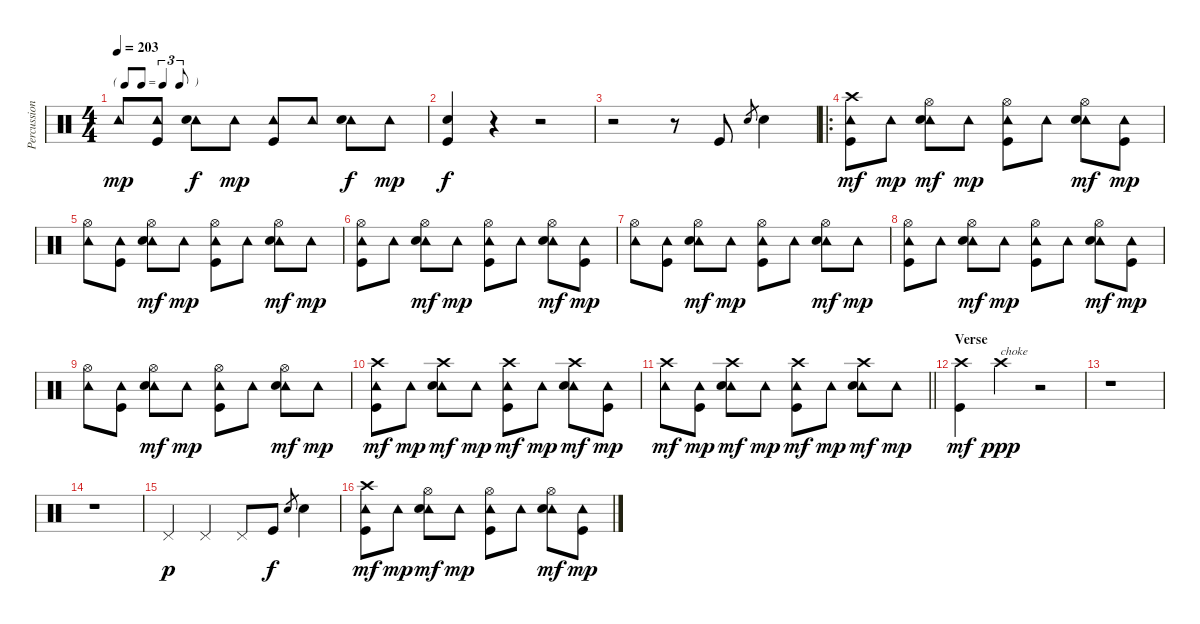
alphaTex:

\track ("Percussion" "Percussion") {instrument percussion}
\staff {score}
\articulation defaults
\ts (4 4)
\tf triplet8th
\tempo 203
\clef neutral
\ks c "Tambourine (hit)".8{dy mp}
("Tambourine (hit)" "Kick (hit)").8 ("Tambourine (hit)" "Snare (hit) 2").8{dy f} "Tambourine (hit)".8{dy mp} ("Tambourine (hit)" "Kick (hit)").8 "Tambourine (hit)".8 ("Tambourine (hit)" "Snare (hit) 2").8{dy f} "Tambourine (hit)".8{dy mp} |
("Snare (hit) 2" "Kick (hit)").4{dy f} r.4 r.2 |
r.2 r.8 "Kick (hit)".8 "Snare (hit) 2".8{gr} "Snare (hit) 2".4 |
\ro
("Tambourine (hit)" "Crash high (hit)" "Kick (hit)").8{dy mf} "Tambourine (hit)".8{dy mp} ("Tambourine (hit)" "Hi-Hat (open)" "Snare (hit) 2").8{dy mf} "Tambourine (hit)".8{dy mp} ("Tambourine (hit)" "Hi-Hat (open)" "Kick (hit)").8 "Tambourine (hit)".8 ("Tambourine (hit)" "Hi-Hat (open)" "Snare (hit) 2").8{dy mf} ("Tambourine (hit)" "Kick (hit)").8{dy mp} |
("Tambourine (hit)" "Hi-Hat (open)").8 ("Tambourine (hit)" "Kick (hit)").8 ("Tambourine (hit)" "Hi-Hat (open)" "Snare (hit) 2").8{dy mf} "Tambourine (hit)".8{dy mp} ("Tambourine (hit)" "Hi-Hat (open)" "Kick (hit)").8 "Tambourine (hit)".8 ("Tambourine (hit)" "Hi-Hat (open)" "Snare (hit) 2").8{dy mf} "Tambourine (hit)".8{dy mp} |
("Tambourine (hit)" "Hi-Hat (open)" "Kick (hit)").8 "Tambourine (hit)".8 ("Tambourine (hit)" "Hi-Hat (open)" "Snare (hit) 2").8{dy mf} "Tambourine (hit)".8{dy mp} ("Tambourine (hit)" "Hi-Hat (open)" "Kick (hit)").8 "Tambourine (hit)".8 ("Tambourine (hit)" "Hi-Hat (open)" "Snare (hit) 2").8{dy mf} ("Tambourine (hit)" "Kick (hit)").8{dy mp} |
("Tambourine (hit)" "Hi-Hat (open)").8 ("Tambourine (hit)" "Kick (hit)").8 ("Tambourine (hit)" "Hi-Hat (open)" "Snare (hit) 2").8{dy mf} "Tambourine (hit)".8{dy mp} ("Tambourine (hit)" "Hi-Hat (open)" "Kick (hit)").8 "Tambourine (hit)".8 ("Tambourine (hit)" "Hi-Hat (open)" "Snare (hit) 2").8{dy mf} "Tambourine (hit)".8{dy mp} |
("Tambourine (hit)" "Hi-Hat (open)" "Kick (hit)").8 "Tambourine (hit)".8 ("Tambourine (hit)" "Hi-Hat (open)" "Snare (hit) 2").8{dy mf} "Tambourine (hit)".8{dy mp} ("Tambourine (hit)" "Hi-Hat (open)" "Kick (hit)").8 "Tambourine (hit)".8 ("Tambourine (hit)" "Hi-Hat (open)" "Snare (hit) 2").8{dy mf} ("Tambourine (hit)" "Kick (hit)").8{dy mp} |
("Tambourine (hit)" "Hi-Hat (open)").8 ("Tambourine (hit)" "Kick (hit)").8 ("Tambourine (hit)" "Hi-Hat (open)" "Snare (hit) 2").8{dy mf} "Tambourine (hit)".8{dy mp} ("Tambourine (hit)" "Hi-Hat (open)" "Kick (hit)").8 "Tambourine (hit)".8 ("Tambourine (hit)" "Hi-Hat (open)" "Snare (hit) 2").8{dy mf} "Tambourine (hit)".8{dy mp} |
("Tambourine (hit)" "Crash high (hit)" "Kick (hit)").8{dy mf} "Tambourine (hit)".8{dy mp} ("Tambourine (hit)" "Crash high (hit)" "Snare (hit) 2").8{dy mf} "Tambourine (hit)".8{dy mp} ("Tambourine (hit)" "Crash high (hit)" "Kick (hit)").8{dy mf} "Tambourine (hit)".8{dy mp} ("Tambourine (hit)" "Crash high (hit)" "Snare (hit) 2").8{dy mf} ("Tambourine (hit)" "Kick (hit)").8{dy mp} |
\barLineRight lightlight
("Tambourine (hit)" "Crash high (hit)").8{dy mf} ("Tambourine (hit)" "Kick (hit)").8{dy mp} ("Tambourine (hit)" "Crash high (hit)" "Snare (hit) 2").8{dy mf} "Tambourine (hit)".8{dy mp} ("Tambourine (hit)" "Crash high (hit)" "Kick (hit)").8{dy mf} "Tambourine (hit)".8{dy mp} ("Tambourine (hit)" "Crash high (hit)" "Snare (hit) 2").8{dy mf} "Tambourine (hit)".8{dy mp} |
\section ("" "Verse")
("Crash high (hit)" "Kick (hit)").4{dy mf} "Crash high (hit)".4{txt "choke" dy ppp} r.2 |
r.1 |
r.1 |
"Pedal Hi-Hat (hit)".4{dy p} "Pedal Hi-Hat (hit)".4 "Pedal Hi-Hat (hit)".8 "Kick (hit)".8{dy f} "Snare (hit) 2".8{gr} "Snare (hit) 2".4 |
("Tambourine (hit)" "Crash high (hit)" "Kick (hit)").8{dy mf} "Tambourine (hit)".8{dy mp} ("Tambourine (hit)" "Hi-Hat (open)" "Snare (hit) 2").8{dy mf} "Tambourine (hit)".8{dy mp} ("Tambourine (hit)" "Hi-Hat (open)" "Kick (hit)").8 "Tambourine (hit)".8 ("Tambourine (hit)" "Hi-Hat (open)" "Snare (hit) 2").8{dy mf} ("Tambourine (hit)" "Kick (hit)").8{dy mp}
